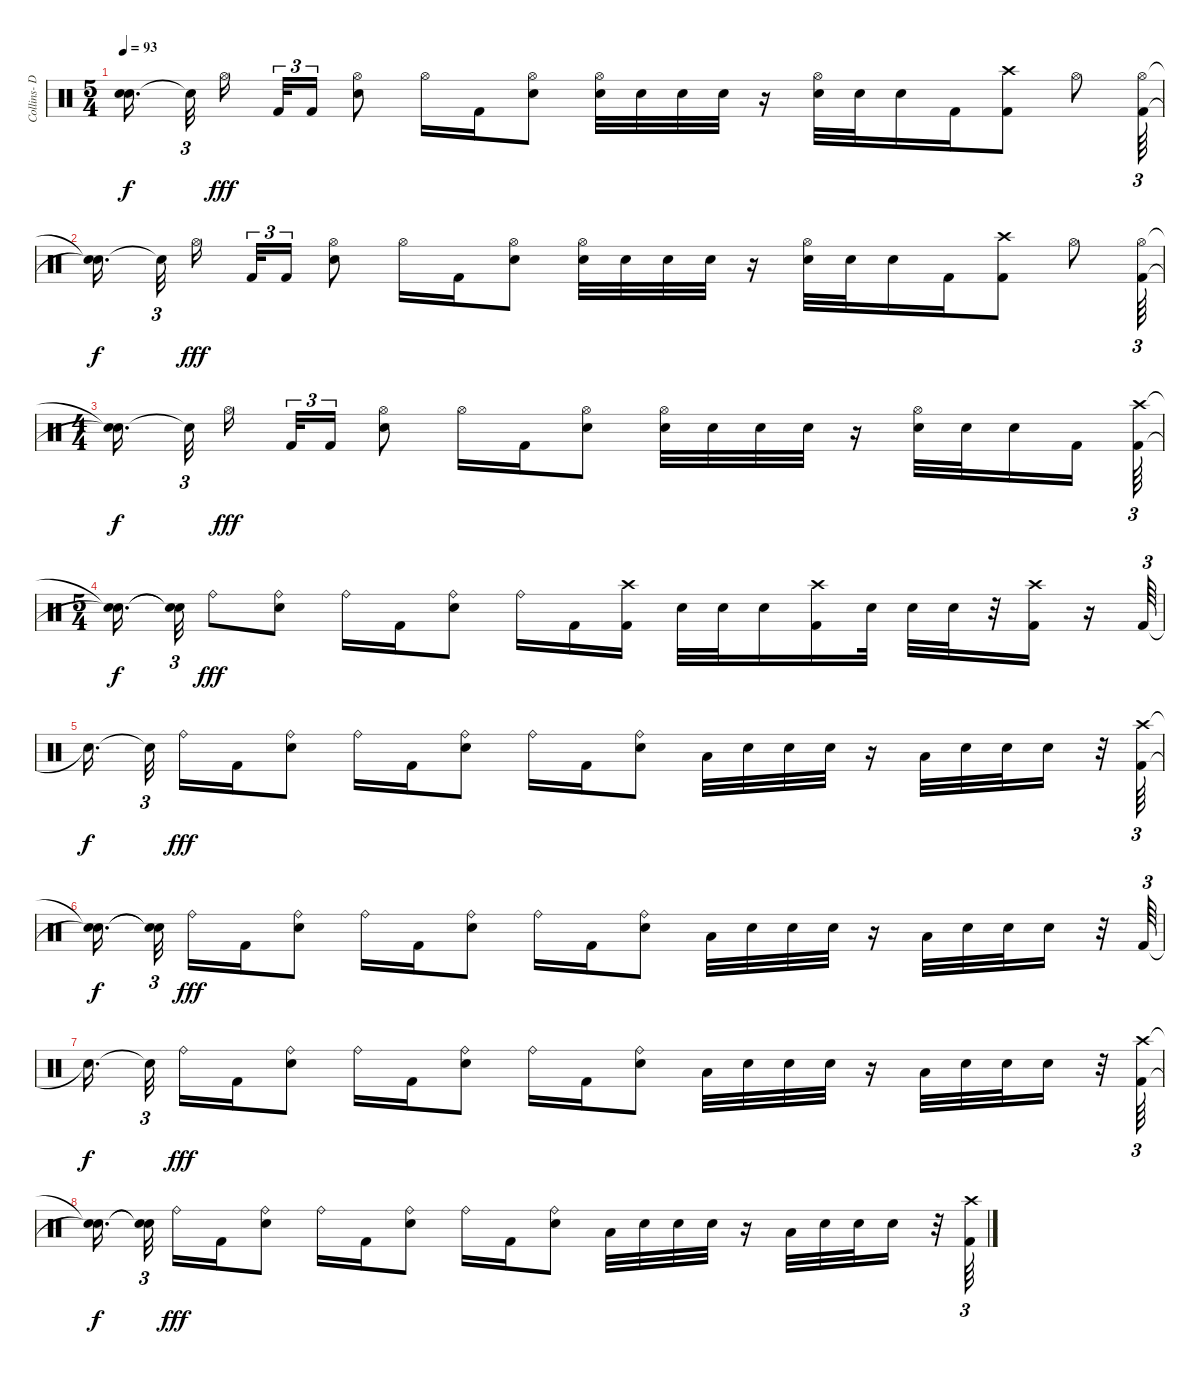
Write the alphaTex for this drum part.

\track ("Collins- Drums" "Collins- D") {instrument percussion}
\staff {score}
\articulation defaults
\ts (5 4)
\tempo 93
\clef neutral
\ks c
("Snare (hit)"{t} "Snare (hit)"{t}).16{d dy f beam splitsecondary} "Snare (hit)"{t}.32{tu (3 2) beam splitsecondary} "Hi-Hat (open)".16{dy fff beam splitsecondary} "Kick (hit) 2".32{tu (3 2)} "Kick (hit) 2".16{tu (3 2)} ("Electric Snare (hit)" "Hi-Hat (open)").8 "Hi-Hat (open)".16 "Kick (hit) 2".16 ("Electric Snare (hit)" "Hi-Hat (open)").8 ("Hi-Hat (open)" "Electric Snare (hit)").32 "Electric Snare (hit)".32 "Electric Snare (hit)".32 "Electric Snare (hit)".32 r.16 ("Hi-Hat (open)" "Electric Snare (hit)").32 "Electric Snare (hit)".32 "Electric Snare (hit)".16 "Kick (hit) 2".16 ("Kick (hit) 2" "Crash high (hit)").8 "Hi-Hat (open)".8 ("Hi-Hat (open)" "Kick (hit) 2").64{tu (3 2)} |
("Snare (hit)"{t} "Snare (hit)"{t}).16{d dy f beam splitsecondary} "Snare (hit)"{t}.32{tu (3 2) beam splitsecondary} "Hi-Hat (open)".16{dy fff beam splitsecondary} "Kick (hit) 2".32{tu (3 2)} "Kick (hit) 2".16{tu (3 2)} ("Electric Snare (hit)" "Hi-Hat (open)").8 "Hi-Hat (open)".16 "Kick (hit) 2".16 ("Electric Snare (hit)" "Hi-Hat (open)").8 ("Hi-Hat (open)" "Electric Snare (hit)").32 "Electric Snare (hit)".32 "Electric Snare (hit)".32 "Electric Snare (hit)".32 r.16 ("Hi-Hat (open)" "Electric Snare (hit)").32 "Electric Snare (hit)".32 "Electric Snare (hit)".16 "Kick (hit) 2".16 ("Kick (hit) 2" "Crash high (hit)").8 "Hi-Hat (open)".8 ("Hi-Hat (open)" "Kick (hit) 2").64{tu (3 2)} |
\ts (4 4)
("Snare (hit)"{t} "Snare (hit)"{t}).16{d dy f beam splitsecondary} "Snare (hit)"{t}.32{tu (3 2) beam splitsecondary} "Hi-Hat (open)".16{dy fff beam splitsecondary} "Kick (hit) 2".32{tu (3 2)} "Kick (hit) 2".16{tu (3 2)} ("Electric Snare (hit)" "Hi-Hat (open)").8 "Hi-Hat (open)".16 "Kick (hit) 2".16 ("Electric Snare (hit)" "Hi-Hat (open)").8 ("Hi-Hat (open)" "Electric Snare (hit)").32 "Electric Snare (hit)".32 "Electric Snare (hit)".32 "Electric Snare (hit)".32 r.16 ("Hi-Hat (open)" "Electric Snare (hit)").32 "Electric Snare (hit)".32 "Electric Snare (hit)".16 "Kick (hit) 2".16{beam splitsecondary} ("Kick (hit) 2" "Crash high (hit)").64{tu (3 2)} |
\ts (5 4)
("Snare (hit)"{t} "Snare (hit)"{t}).16{d dy f beam splitsecondary} ("Snare (hit)"{t} "Snare (hit)"{t}).32{tu (3 2)} "Ride (bell)".8{dy fff} ("Electric Snare (hit)" "Ride (bell)").8 "Ride (bell)".16 "Kick (hit) 2".16 ("Electric Snare (hit)" "Ride (bell)").8 "Ride (bell)".16 "Kick (hit) 2".16 ("Kick (hit) 2" "Crash high (hit)").16 "Electric Snare (hit)".32 "Electric Snare (hit)".32 "Electric Snare (hit)".16 ("Kick (hit) 2" "Crash high (hit)").16 "Electric Snare (hit)".32 "Electric Snare (hit)".32 "Electric Snare (hit)".32 r.32 ("Kick (hit) 2" "Crash high (hit)").16 r.16 "Kick (hit) 2".64{tu (3 2)} |
"Snare (hit)"{t}.16{d dy f beam splitsecondary} "Snare (hit)"{t}.32{tu (3 2) beam splitsecondary} "Ride (bell)".16{dy fff} "Kick (hit) 2".16 ("Electric Snare (hit)" "Ride (bell)").8 "Ride (bell)".16 "Kick (hit) 2".16 ("Electric Snare (hit)" "Ride (bell)").8 "Ride (bell)".16 "Kick (hit) 2".16 ("Ride (bell)" "Electric Snare (hit)").8 "Low Tom (hit)".32 "Electric Snare (hit)".32 "Electric Snare (hit)".32 "Electric Snare (hit)".32 r.16 "Low Tom (hit)".32 "Electric Snare (hit)".32 "Electric Snare (hit)".32 "Electric Snare (hit)".16 r.32 ("Crash high (hit)" "Kick (hit) 2").64{tu (3 2)} |
("Snare (hit)"{t} "Snare (hit)"{t}).16{d dy f beam splitsecondary} ("Snare (hit)"{t} "Snare (hit)"{t}).32{tu (3 2) beam splitsecondary} "Ride (bell)".16{dy fff} "Kick (hit) 2".16 ("Electric Snare (hit)" "Ride (bell)").8 "Ride (bell)".16 "Kick (hit) 2".16 ("Electric Snare (hit)" "Ride (bell)").8 "Ride (bell)".16 "Kick (hit) 2".16 ("Ride (bell)" "Electric Snare (hit)").8 "Low Tom (hit)".32 "Electric Snare (hit)".32 "Electric Snare (hit)".32 "Electric Snare (hit)".32 r.16 "Low Tom (hit)".32 "Electric Snare (hit)".32 "Electric Snare (hit)".32 "Electric Snare (hit)".16 r.32 "Kick (hit) 2".64{tu (3 2)} |
"Snare (hit)"{t}.16{d dy f beam splitsecondary} "Snare (hit)"{t}.32{tu (3 2) beam splitsecondary} "Ride (bell)".16{dy fff} "Kick (hit) 2".16 ("Electric Snare (hit)" "Ride (bell)").8 "Ride (bell)".16 "Kick (hit) 2".16 ("Electric Snare (hit)" "Ride (bell)").8 "Ride (bell)".16 "Kick (hit) 2".16 ("Ride (bell)" "Electric Snare (hit)").8 "Low Tom (hit)".32 "Electric Snare (hit)".32 "Electric Snare (hit)".32 "Electric Snare (hit)".32 r.16 "Low Tom (hit)".32 "Electric Snare (hit)".32 "Electric Snare (hit)".32 "Electric Snare (hit)".16 r.32 ("Crash high (hit)" "Kick (hit) 2").64{tu (3 2)} |
("Snare (hit)"{t} "Snare (hit)"{t}).16{d dy f beam splitsecondary} ("Snare (hit)"{t} "Snare (hit)"{t}).32{tu (3 2) beam splitsecondary} "Ride (bell)".16{dy fff} "Kick (hit) 2".16 ("Electric Snare (hit)" "Ride (bell)").8 "Ride (bell)".16 "Kick (hit) 2".16 ("Electric Snare (hit)" "Ride (bell)").8 "Ride (bell)".16 "Kick (hit) 2".16 ("Ride (bell)" "Electric Snare (hit)").8 "Low Tom (hit)".32 "Electric Snare (hit)".32 "Electric Snare (hit)".32 "Electric Snare (hit)".32 r.16 "Low Tom (hit)".32 "Electric Snare (hit)".32 "Electric Snare (hit)".32 "Electric Snare (hit)".16 r.32 ("Crash high (hit)" "Kick (hit) 2").64{tu (3 2)}
